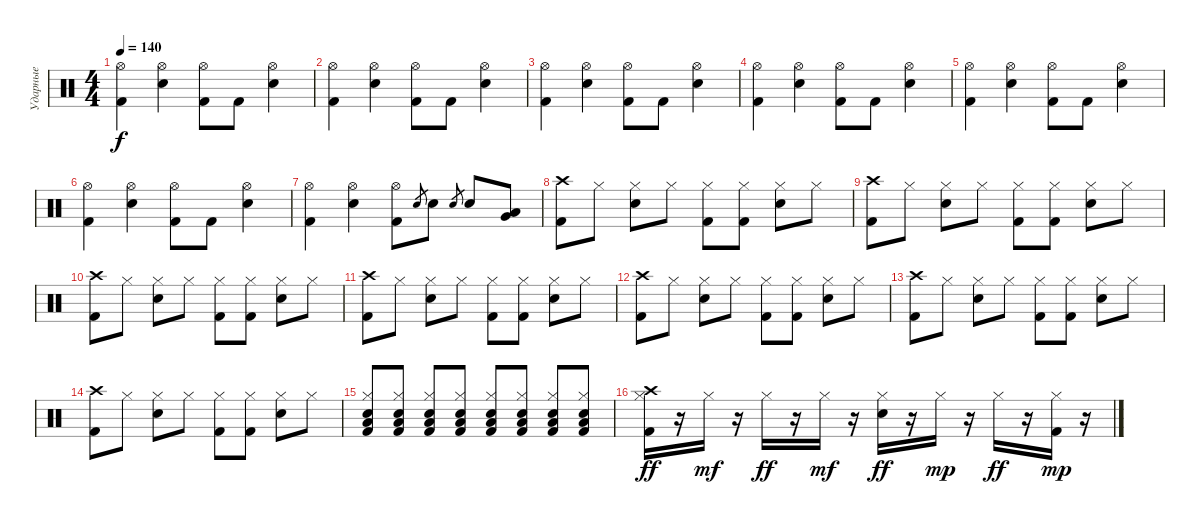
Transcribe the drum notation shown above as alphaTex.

\track ("Ударные" "Ударные") {instrument percussion}
\staff {score}
\articulation defaults
\ts (4 4)
\tempo 140
\clef neutral
\ks c
("Kick (hit) 2" "Hi-Hat (open)").4{dy f} ("Snare (hit) 2" "Hi-Hat (open)").4 ("Kick (hit) 2" "Hi-Hat (open)").8 "Kick (hit) 2".8 ("Snare (hit) 2" "Hi-Hat (open)").4 |
("Kick (hit) 2" "Hi-Hat (open)").4 ("Snare (hit) 2" "Hi-Hat (open)").4 ("Kick (hit) 2" "Hi-Hat (open)").8 "Kick (hit) 2".8 ("Snare (hit) 2" "Hi-Hat (open)").4 |
("Kick (hit) 2" "Hi-Hat (open)").4 ("Snare (hit) 2" "Hi-Hat (open)").4 ("Kick (hit) 2" "Hi-Hat (open)").8 "Kick (hit) 2".8 ("Snare (hit) 2" "Hi-Hat (open)").4 |
("Kick (hit) 2" "Hi-Hat (open)").4 ("Snare (hit) 2" "Hi-Hat (open)").4 ("Kick (hit) 2" "Hi-Hat (open)").8 "Kick (hit) 2".8 ("Snare (hit) 2" "Hi-Hat (open)").4 |
("Kick (hit) 2" "Hi-Hat (open)").4 ("Snare (hit) 2" "Hi-Hat (open)").4 ("Kick (hit) 2" "Hi-Hat (open)").8 "Kick (hit) 2".8 ("Snare (hit) 2" "Hi-Hat (open)").4 |
("Kick (hit) 2" "Hi-Hat (open)").4 ("Snare (hit) 2" "Hi-Hat (open)").4 ("Kick (hit) 2" "Hi-Hat (open)").8 "Kick (hit) 2".8 ("Snare (hit) 2" "Hi-Hat (open)").4 |
("Kick (hit) 2" "Hi-Hat (open)").4 ("Snare (hit) 2" "Hi-Hat (open)").4 ("Kick (hit) 2" "Hi-Hat (open)").8 "Snare (hit) 2".8{gr} "Snare (hit) 2".8 "Snare (hit) 2".8{gr} "Snare (hit) 2".8 ("Low Tom (hit)" "Very Low Tom (hit)").8 |
("Kick (hit) 2" "Crash high (hit)").8 "Hi-Hat (closed)".8 ("Snare (hit) 2" "Hi-Hat (closed)").8 "Hi-Hat (closed)".8 ("Kick (hit) 2" "Hi-Hat (closed)").8 ("Kick (hit) 2" "Hi-Hat (closed)").8 ("Snare (hit) 2" "Hi-Hat (closed)").8 "Hi-Hat (closed)".8 |
("Kick (hit) 2" "Crash high (hit)").8 "Hi-Hat (closed)".8 ("Snare (hit) 2" "Hi-Hat (closed)").8 "Hi-Hat (closed)".8 ("Kick (hit) 2" "Hi-Hat (closed)").8 ("Kick (hit) 2" "Hi-Hat (closed)").8 ("Snare (hit) 2" "Hi-Hat (closed)").8 "Hi-Hat (closed)".8 |
("Kick (hit) 2" "Crash high (hit)").8 "Hi-Hat (closed)".8 ("Snare (hit) 2" "Hi-Hat (closed)").8 "Hi-Hat (closed)".8 ("Kick (hit) 2" "Hi-Hat (closed)").8 ("Kick (hit) 2" "Hi-Hat (closed)").8 ("Snare (hit) 2" "Hi-Hat (closed)").8 "Hi-Hat (closed)".8 |
("Kick (hit) 2" "Crash high (hit)").8 "Hi-Hat (closed)".8 ("Snare (hit) 2" "Hi-Hat (closed)").8 "Hi-Hat (closed)".8 ("Kick (hit) 2" "Hi-Hat (closed)").8 ("Kick (hit) 2" "Hi-Hat (closed)").8 ("Snare (hit) 2" "Hi-Hat (closed)").8 "Hi-Hat (closed)".8 |
("Kick (hit) 2" "Crash high (hit)").8 "Hi-Hat (closed)".8 ("Snare (hit) 2" "Hi-Hat (closed)").8 "Hi-Hat (closed)".8 ("Kick (hit) 2" "Hi-Hat (closed)").8 ("Kick (hit) 2" "Hi-Hat (closed)").8 ("Snare (hit) 2" "Hi-Hat (closed)").8 "Hi-Hat (closed)".8 |
("Kick (hit) 2" "Crash high (hit)").8 "Hi-Hat (closed)".8 ("Snare (hit) 2" "Hi-Hat (closed)").8 "Hi-Hat (closed)".8 ("Kick (hit) 2" "Hi-Hat (closed)").8 ("Kick (hit) 2" "Hi-Hat (closed)").8 ("Snare (hit) 2" "Hi-Hat (closed)").8 "Hi-Hat (closed)".8 |
("Kick (hit) 2" "Crash high (hit)").8 "Hi-Hat (closed)".8 ("Snare (hit) 2" "Hi-Hat (closed)").8 "Hi-Hat (closed)".8 ("Kick (hit) 2" "Hi-Hat (closed)").8 ("Kick (hit) 2" "Hi-Hat (closed)").8 ("Snare (hit) 2" "Hi-Hat (closed)").8 "Hi-Hat (closed)".8 |
("Hi-Hat (closed)" "Low Floor Tom (hit)" "Kick (hit) 2" "Electric Snare (hit)").8 ("Hi-Hat (closed)" "Low Floor Tom (hit)" "Kick (hit) 2" "Electric Snare (hit)").8 ("Hi-Hat (closed)" "Low Floor Tom (hit)" "Kick (hit) 2" "Electric Snare (hit)").8 ("Hi-Hat (closed)" "Low Floor Tom (hit)" "Kick (hit) 2" "Electric Snare (hit)").8 ("Hi-Hat (closed)" "Low Floor Tom (hit)" "Kick (hit) 2" "Electric Snare (hit)").8 ("Hi-Hat (closed)" "Low Floor Tom (hit)" "Kick (hit) 2" "Electric Snare (hit)").8 ("Hi-Hat (closed)" "Low Floor Tom (hit)" "Kick (hit) 2" "Electric Snare (hit)").8 ("Hi-Hat (closed)" "Low Floor Tom (hit)" "Kick (hit) 2" "Electric Snare (hit)").8 |
("Kick (hit) 2" "Hi-Hat (closed)" "Crash high (hit)").16{dy ff} r.16 "Hi-Hat (closed)".16{dy mf} r.16 "Hi-Hat (closed)".16{dy ff} r.16 "Hi-Hat (closed)".16{dy mf} r.16 ("Snare (hit) 2" "Hi-Hat (closed)").16{dy ff} r.16 "Hi-Hat (closed)".16{dy mp} r.16 "Hi-Hat (closed)".16{dy ff} r.16 ("Kick (hit) 2" "Hi-Hat (closed)").16{dy mp} r.16
